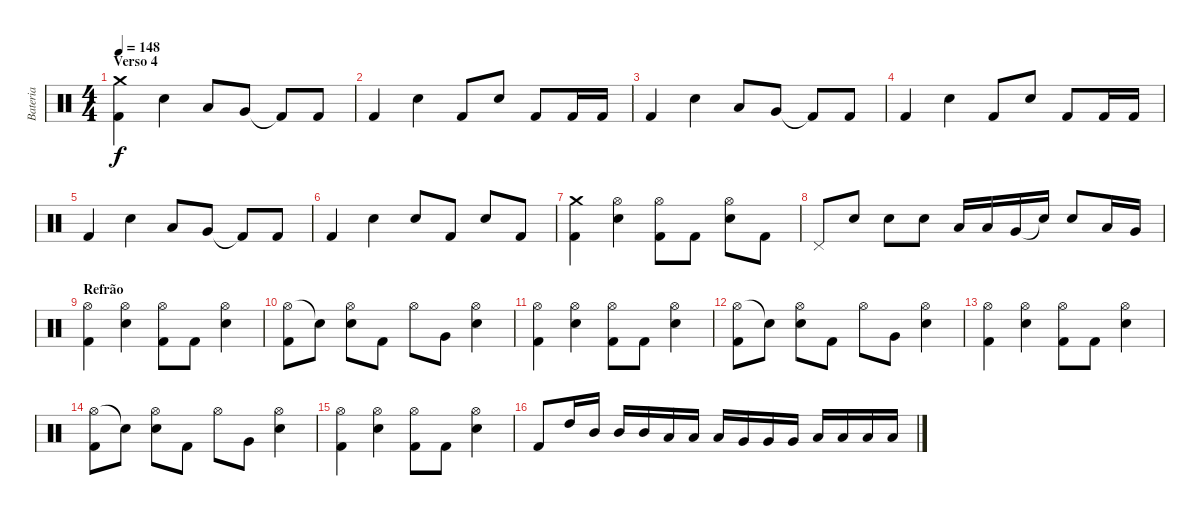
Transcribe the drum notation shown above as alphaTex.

\track ("Bateria" "Bateria") {instrument percussion}
\staff {score}
\articulation defaults
\ts (4 4)
\section ("" "Verso 4")
\tempo 148
\clef neutral
\ks c
("Crash medium (hit)" "Kick (hit) 2").4{dy f} "Electric Snare (hit)".4 "Low Tom (hit)".8 "Very Low Tom (hit)".8 "Kick (hit) 2"{t}.8 "Kick (hit) 2".8 |
"Kick (hit) 2".4 "Electric Snare (hit)".4 "Kick (hit) 2".8 "Electric Snare (hit)".8 "Kick (hit) 2".8 "Kick (hit) 2".16 "Kick (hit) 2".16 |
"Kick (hit) 2".4 "Electric Snare (hit)".4 "Low Tom (hit)".8 "Very Low Tom (hit)".8 "Kick (hit) 2"{t}.8 "Kick (hit) 2".8 |
"Kick (hit) 2".4 "Electric Snare (hit)".4 "Kick (hit) 2".8 "Electric Snare (hit)".8 "Kick (hit) 2".8 "Kick (hit) 2".16 "Kick (hit) 2".16 |
"Kick (hit) 2".4 "Electric Snare (hit)".4 "Low Tom (hit)".8 "Very Low Tom (hit)".8 "Kick (hit) 2"{t}.8 "Kick (hit) 2".8 |
"Kick (hit) 2".4 "Electric Snare (hit)".4 "Electric Snare (hit)".8 "Kick (hit) 2".8 "Electric Snare (hit)".8 "Kick (hit) 2".8 |
("Crash medium (hit)" "Kick (hit) 2").4 ("Hi-Hat (open)" "Electric Snare (hit)").4 ("Hi-Hat (open)" "Kick (hit) 2").8 "Kick (hit) 2".8 ("Hi-Hat (open)" "Electric Snare (hit)").8 "Kick (hit) 2".8 |
"Pedal Hi-Hat (hit)".8 "Electric Snare (hit)".8 "Electric Snare (hit)".8 "Electric Snare (hit)".8 "Low Tom (hit)".16 "Low Tom (hit)".16 "Very Low Tom (hit)".16 "Snare (hit)"{t}.16 "Electric Snare (hit)".8 "Low Tom (hit)".16 "Very Low Tom (hit)".16 |
\section ("" "Refrão")
("Hi-Hat (open)" "Kick (hit) 2").4 ("Hi-Hat (open)" "Electric Snare (hit)").4 ("Hi-Hat (open)" "Kick (hit) 2").8 "Kick (hit) 2".8 ("Hi-Hat (open)" "Electric Snare (hit)").4 |
("Hi-Hat (open)" "Kick (hit) 2").8 "Snare (hit)"{t}.8 ("Hi-Hat (open)" "Electric Snare (hit)").8 "Kick (hit) 2".8 "Hi-Hat (open)".8 "Very Low Tom (hit)".8 ("Hi-Hat (open)" "Electric Snare (hit)").4 |
("Hi-Hat (open)" "Kick (hit) 2").4 ("Hi-Hat (open)" "Electric Snare (hit)").4 ("Hi-Hat (open)" "Kick (hit) 2").8 "Kick (hit) 2".8 ("Hi-Hat (open)" "Electric Snare (hit)").4 |
("Hi-Hat (open)" "Kick (hit) 2").8 "Snare (hit)"{t}.8 ("Hi-Hat (open)" "Electric Snare (hit)").8 "Kick (hit) 2".8 "Hi-Hat (open)".8 "Very Low Tom (hit)".8 ("Hi-Hat (open)" "Electric Snare (hit)").4 |
("Hi-Hat (open)" "Kick (hit) 2").4 ("Hi-Hat (open)" "Electric Snare (hit)").4 ("Hi-Hat (open)" "Kick (hit) 2").8 "Kick (hit) 2".8 ("Hi-Hat (open)" "Electric Snare (hit)").4 |
("Hi-Hat (open)" "Kick (hit) 2").8 "Snare (hit)"{t}.8 ("Hi-Hat (open)" "Electric Snare (hit)").8 "Kick (hit) 2".8 "Hi-Hat (open)".8 "Very Low Tom (hit)".8 ("Hi-Hat (open)" "Electric Snare (hit)").4 |
("Hi-Hat (open)" "Kick (hit) 2").4 ("Hi-Hat (open)" "Electric Snare (hit)").4 ("Hi-Hat (open)" "Kick (hit) 2").8 "Kick (hit) 2".8 ("Hi-Hat (open)" "Electric Snare (hit)").4 |
"Kick (hit) 2".8 "High Tom (hit)".16 "Mid Tom (hit)".16 "Mid Tom (hit)".16 "Mid Tom (hit)".16 "Low Tom (hit)".16 "Low Tom (hit)".16 "Low Tom (hit)".16 "Very Low Tom (hit)".16 "Very Low Tom (hit)".16 "Very Low Tom (hit)".16 "Low Floor Tom (hit)".16 "Low Floor Tom (hit)".16 "Low Floor Tom (hit)".16 "Low Floor Tom (hit)".16
